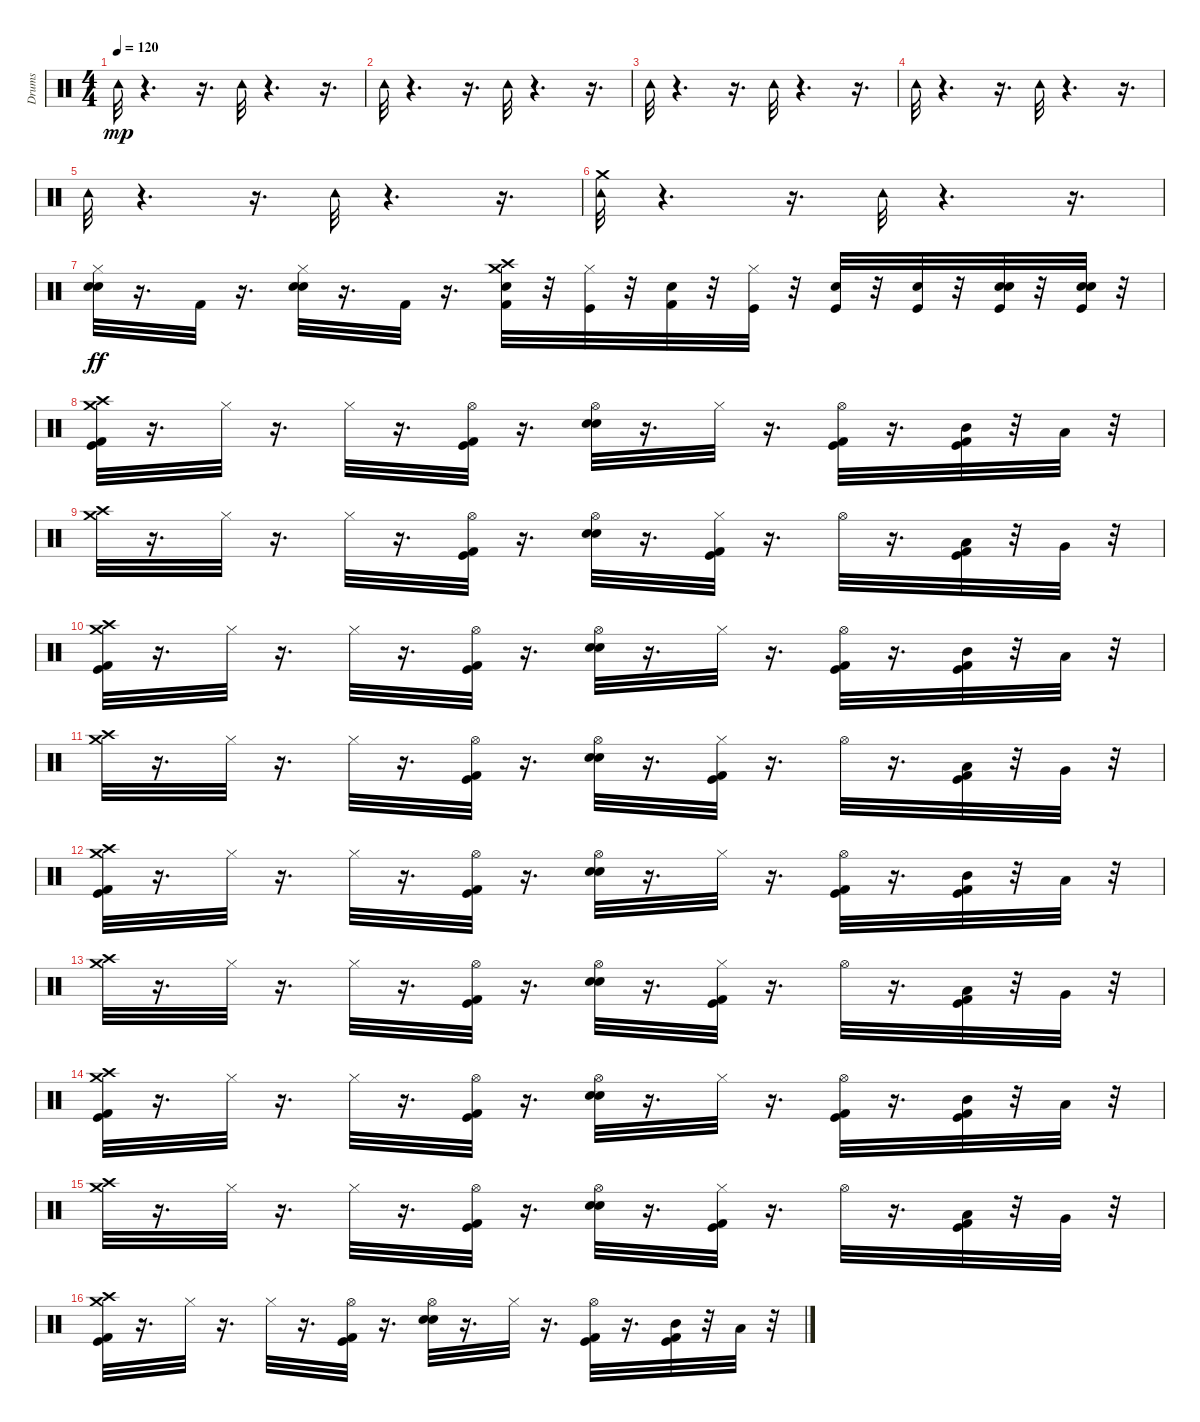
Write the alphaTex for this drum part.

\track ("Drums" "Drums") {instrument percussion}
\staff {score}
\articulation defaults
\ts (4 4)
\tempo 120
\clef neutral
\ks c "Tambourine (hit)".32{dy mp}
r.4{d} r.16{d} "Tambourine (hit)".32 r.4{d} r.16{d} |
"Tambourine (hit)".32 r.4{d} r.16{d} "Tambourine (hit)".32 r.4{d} r.16{d} |
"Tambourine (hit)".32 r.4{d} r.16{d} "Tambourine (hit)".32 r.4{d} r.16{d} |
"Tambourine (hit)".32 r.4{d} r.16{d} "Tambourine (hit)".32 r.4{d} r.16{d} |
"Tambourine (hit)".32 r.4{d} r.16{d} "Tambourine (hit)".32 r.4{d} r.16{d} |
("Crash medium (hit)" "Tambourine (hit)").32 r.4{d} r.16{d} "Tambourine (hit)".32 r.4{d} r.16{d} |
("Hi-Hat (closed)" "Electric Snare (hit)" "Snare (hit) 2").32{dy ff} r.16{d} "Kick (hit) 2".32 r.16{d} ("Snare (hit) 2" "Hi-Hat (closed)" "Electric Snare (hit)").32 r.16{d} "Kick (hit) 2".32 r.16{d} ("Crash high (hit)" "Snare (hit) 2" "Kick (hit) 2" "Crash medium (hit)").32 r.32 ("Kick (hit)" "Hi-Hat (closed)").32 r.32 ("Snare (hit) 2" "Kick (hit) 2").32 r.32 ("Kick (hit)" "Hi-Hat (closed)").32 r.32 ("Snare (hit) 2" "Kick (hit)").32 r.32 ("Kick (hit)" "Snare (hit) 2").32 r.32 ("Snare (hit) 2" "Kick (hit)" "Electric Snare (hit)").32 r.32 ("Snare (hit) 2" "Kick (hit)" "Electric Snare (hit)").32 r.32 |
("Kick (hit)" "Crash medium (hit)" "Kick (hit) 2" "Crash high (hit)").32 r.16{d} "Hi-Hat (closed)".32 r.16{d} "Hi-Hat (closed)".32 r.16{d} ("Kick (hit) 2" "Hi-Hat (open)" "Kick (hit)").32 r.16{d} ("Hi-Hat (open)" "Snare (hit) 2" "Electric Snare (hit)").32 r.16{d} "Hi-Hat (closed)".32 r.16{d} ("Kick (hit)" "Hi-Hat (open)" "Kick (hit) 2").32 r.16{d} ("Kick (hit)" "Kick (hit) 2" "Mid Tom (hit)").32 r.32 "Low Tom (hit)".32 r.32 |
("Crash high (hit)" "Crash medium (hit)").32 r.16{d} "Hi-Hat (closed)".32 r.16{d} "Hi-Hat (closed)".32 r.16{d} ("Hi-Hat (open)" "Kick (hit) 2" "Kick (hit)").32 r.16{d} ("Snare (hit) 2" "Hi-Hat (open)" "Electric Snare (hit)").32 r.16{d} ("Hi-Hat (closed)" "Kick (hit) 2" "Kick (hit)").32 r.16{d} "Hi-Hat (open)".32 r.16{d} ("Kick (hit)" "Kick (hit) 2" "Low Tom (hit)").32 r.32 "Very Low Tom (hit)".32 r.32 |
("Crash high (hit)" "Kick (hit) 2" "Kick (hit)" "Crash medium (hit)").32 r.16{d} "Hi-Hat (closed)".32 r.16{d} "Hi-Hat (closed)".32 r.16{d} ("Hi-Hat (open)" "Kick (hit)" "Kick (hit) 2").32 r.16{d} ("Electric Snare (hit)" "Snare (hit) 2" "Hi-Hat (open)").32 r.16{d} "Hi-Hat (closed)".32 r.16{d} ("Kick (hit) 2" "Hi-Hat (open)" "Kick (hit)").32 r.16{d} ("Mid Tom (hit)" "Kick (hit) 2" "Kick (hit)").32 r.32 "Low Tom (hit)".32 r.32 |
("Crash high (hit)" "Crash medium (hit)").32 r.16{d} "Hi-Hat (closed)".32 r.16{d} "Hi-Hat (closed)".32 r.16{d} ("Hi-Hat (open)" "Kick (hit)" "Kick (hit) 2").32 r.16{d} ("Hi-Hat (open)" "Snare (hit) 2" "Electric Snare (hit)").32 r.16{d} ("Kick (hit) 2" "Kick (hit)" "Hi-Hat (closed)").32 r.16{d} "Hi-Hat (open)".32 r.16{d} ("Kick (hit)" "Kick (hit) 2" "Low Tom (hit)").32 r.32 "Very Low Tom (hit)".32 r.32 |
("Crash medium (hit)" "Kick (hit) 2" "Crash high (hit)" "Kick (hit)").32 r.16{d} "Hi-Hat (closed)".32 r.16{d} "Hi-Hat (closed)".32 r.16{d} ("Kick (hit) 2" "Kick (hit)" "Hi-Hat (open)").32 r.16{d} ("Electric Snare (hit)" "Snare (hit) 2" "Hi-Hat (open)").32 r.16{d} "Hi-Hat (closed)".32 r.16{d} ("Kick (hit) 2" "Kick (hit)" "Hi-Hat (open)").32 r.16{d} ("Kick (hit)" "Mid Tom (hit)" "Kick (hit) 2").32 r.32 "Low Tom (hit)".32 r.32 |
("Crash high (hit)" "Crash medium (hit)").32 r.16{d} "Hi-Hat (closed)".32 r.16{d} "Hi-Hat (closed)".32 r.16{d} ("Kick (hit) 2" "Kick (hit)" "Hi-Hat (open)").32 r.16{d} ("Hi-Hat (open)" "Electric Snare (hit)" "Snare (hit) 2").32 r.16{d} ("Hi-Hat (closed)" "Kick (hit) 2" "Kick (hit)").32 r.16{d} "Hi-Hat (open)".32 r.16{d} ("Kick (hit)" "Low Tom (hit)" "Kick (hit) 2").32 r.32 "Very Low Tom (hit)".32 r.32 |
("Kick (hit)" "Crash medium (hit)" "Crash high (hit)" "Kick (hit) 2").32 r.16{d} "Hi-Hat (closed)".32 r.16{d} "Hi-Hat (closed)".32 r.16{d} ("Hi-Hat (open)" "Kick (hit) 2" "Kick (hit)").32 r.16{d} ("Electric Snare (hit)" "Hi-Hat (open)" "Snare (hit) 2").32 r.16{d} "Hi-Hat (closed)".32 r.16{d} ("Kick (hit) 2" "Kick (hit)" "Hi-Hat (open)").32 r.16{d} ("Kick (hit) 2" "Mid Tom (hit)" "Kick (hit)").32 r.32 "Low Tom (hit)".32 r.32 |
("Crash medium (hit)" "Crash high (hit)").32 r.16{d} "Hi-Hat (closed)".32 r.16{d} "Hi-Hat (closed)".32 r.16{d} ("Hi-Hat (open)" "Kick (hit)" "Kick (hit) 2").32 r.16{d} ("Hi-Hat (open)" "Electric Snare (hit)" "Snare (hit) 2").32 r.16{d} ("Kick (hit)" "Kick (hit) 2" "Hi-Hat (closed)").32 r.16{d} "Hi-Hat (open)".32 r.16{d} ("Low Tom (hit)" "Kick (hit) 2" "Kick (hit)").32 r.32 "Very Low Tom (hit)".32 r.32 |
("Crash high (hit)" "Kick (hit)" "Crash medium (hit)" "Kick (hit) 2").32 r.16{d} "Hi-Hat (closed)".32 r.16{d} "Hi-Hat (closed)".32 r.16{d} ("Hi-Hat (open)" "Kick (hit) 2" "Kick (hit)").32 r.16{d} ("Snare (hit) 2" "Hi-Hat (open)" "Electric Snare (hit)").32 r.16{d} "Hi-Hat (closed)".32 r.16{d} ("Kick (hit)" "Kick (hit) 2" "Hi-Hat (open)").32 r.16{d} ("Mid Tom (hit)" "Kick (hit) 2" "Kick (hit)").32 r.32 "Low Tom (hit)".32 r.32
